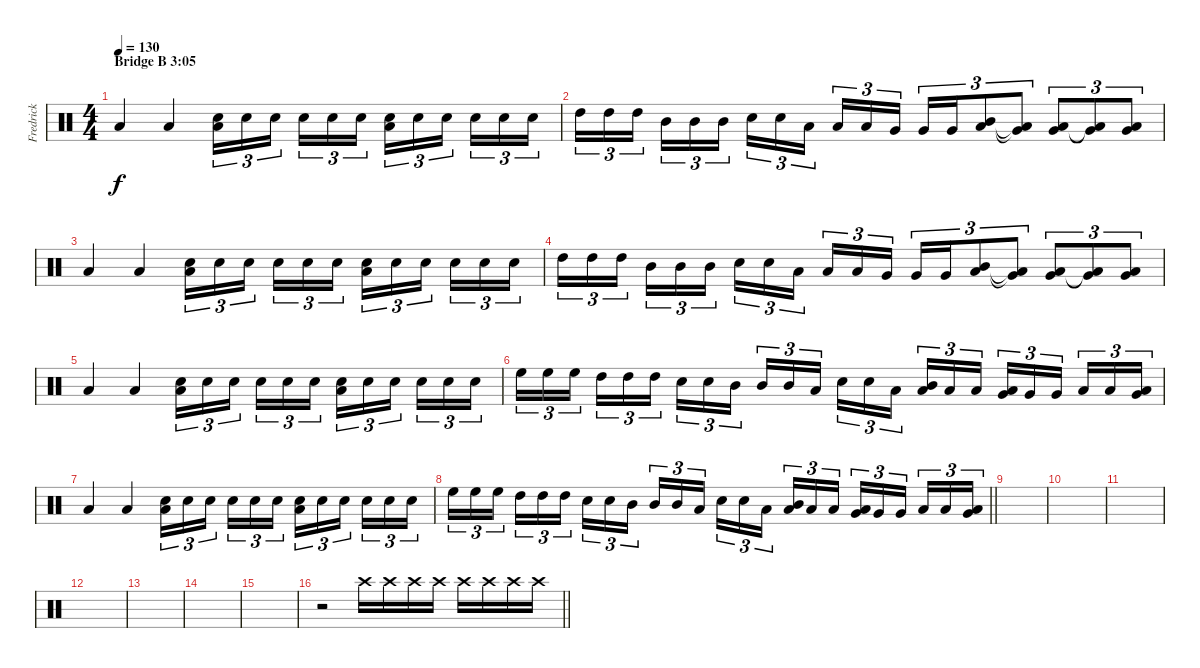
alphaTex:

\track ("Fredrick" "Fredrick") {instrument percussion}
\staff {score}
\articulation defaults
\ts (4 4)
\section ("" "Bridge B 3:05")
\tempo 130
\clef neutral
\ks c "Low Floor Tom (hit)".4{dy f} "Low Floor Tom (hit)".4
("Low Floor Tom (hit)" "Electric Snare (hit)").16{tu (3 2)} "Electric Snare (hit)".16{tu (3 2)} "Electric Snare (hit)".16{tu (3 2) beam splitsecondary} "Electric Snare (hit)".16{tu (3 2)} "Electric Snare (hit)".16{tu (3 2)} "Electric Snare (hit)".16{tu (3 2)} ("Low Floor Tom (hit)" "Electric Snare (hit)").16{tu (3 2)} "Electric Snare (hit)".16{tu (3 2)} "Electric Snare (hit)".16{tu (3 2) beam splitsecondary} "Electric Snare (hit)".16{tu (3 2)} "Electric Snare (hit)".16{tu (3 2)} "Electric Snare (hit)".16{tu (3 2)} |
"High Tom (hit)".16{tu (3 2)} "High Tom (hit)".16{tu (3 2)} "High Tom (hit)".16{tu (3 2) beam splitsecondary} "Mid Tom (hit)".16{tu (3 2)} "Mid Tom (hit)".16{tu (3 2)} "Mid Tom (hit)".16{tu (3 2)} "Electric Snare (hit)".16{tu (3 2)} "Electric Snare (hit)".16{tu (3 2)} "Low Tom (hit)".16{tu (3 2) beam splitsecondary} "Low Tom (hit)".16{tu (3 2)} "Low Tom (hit)".16{tu (3 2)} "Very Low Tom (hit)".16{tu (3 2)} "Very Low Tom (hit)".16{tu (3 2)} "Very Low Tom (hit)".16{tu (3 2)} ("Mid Tom (hit)" "Low Tom (hit)").8{tu (3 2)} ("Low Tom (hit)"{t} "Very Low Tom (hit)"{t}).8{tu (3 2)} ("Low Tom (hit)" "Very Low Tom (hit)").8{tu (3 2)} ("Very Low Tom (hit)"{t} "Low Floor Tom (hit)"{t}).8{tu (3 2)} ("Very Low Tom (hit)" "Low Floor Tom (hit)").8{tu (3 2)} |
"Low Floor Tom (hit)".4 "Low Floor Tom (hit)".4 ("Low Floor Tom (hit)" "Electric Snare (hit)").16{tu (3 2)} "Electric Snare (hit)".16{tu (3 2)} "Electric Snare (hit)".16{tu (3 2) beam splitsecondary} "Electric Snare (hit)".16{tu (3 2)} "Electric Snare (hit)".16{tu (3 2)} "Electric Snare (hit)".16{tu (3 2)} ("Low Floor Tom (hit)" "Electric Snare (hit)").16{tu (3 2)} "Electric Snare (hit)".16{tu (3 2)} "Electric Snare (hit)".16{tu (3 2) beam splitsecondary} "Electric Snare (hit)".16{tu (3 2)} "Electric Snare (hit)".16{tu (3 2)} "Electric Snare (hit)".16{tu (3 2)} |
"High Tom (hit)".16{tu (3 2)} "High Tom (hit)".16{tu (3 2)} "High Tom (hit)".16{tu (3 2) beam splitsecondary} "Mid Tom (hit)".16{tu (3 2)} "Mid Tom (hit)".16{tu (3 2)} "Mid Tom (hit)".16{tu (3 2)} "Electric Snare (hit)".16{tu (3 2)} "Electric Snare (hit)".16{tu (3 2)} "Low Tom (hit)".16{tu (3 2) beam splitsecondary} "Low Tom (hit)".16{tu (3 2)} "Low Tom (hit)".16{tu (3 2)} "Very Low Tom (hit)".16{tu (3 2)} "Very Low Tom (hit)".16{tu (3 2)} "Very Low Tom (hit)".16{tu (3 2)} ("Mid Tom (hit)" "Low Tom (hit)").8{tu (3 2)} ("Low Tom (hit)"{t} "Very Low Tom (hit)"{t}).8{tu (3 2)} ("Low Tom (hit)" "Very Low Tom (hit)").8{tu (3 2)} ("Very Low Tom (hit)"{t} "Low Floor Tom (hit)"{t}).8{tu (3 2)} ("Very Low Tom (hit)" "Low Floor Tom (hit)").8{tu (3 2)} |
"Low Floor Tom (hit)".4 "Low Floor Tom (hit)".4 ("Low Floor Tom (hit)" "Electric Snare (hit)").16{tu (3 2)} "Electric Snare (hit)".16{tu (3 2)} "Electric Snare (hit)".16{tu (3 2) beam splitsecondary} "Electric Snare (hit)".16{tu (3 2)} "Electric Snare (hit)".16{tu (3 2)} "Electric Snare (hit)".16{tu (3 2)} ("Low Floor Tom (hit)" "Electric Snare (hit)").16{tu (3 2)} "Electric Snare (hit)".16{tu (3 2)} "Electric Snare (hit)".16{tu (3 2) beam splitsecondary} "Electric Snare (hit)".16{tu (3 2)} "Electric Snare (hit)".16{tu (3 2)} "Electric Snare (hit)".16{tu (3 2)} |
"High Floor Tom (hit)".16{tu (3 2)} "High Floor Tom (hit)".16{tu (3 2)} "High Floor Tom (hit)".16{tu (3 2) beam splitsecondary} "High Tom (hit)".16{tu (3 2)} "High Tom (hit)".16{tu (3 2)} "High Tom (hit)".16{tu (3 2)} "Electric Snare (hit)".16{tu (3 2)} "Electric Snare (hit)".16{tu (3 2)} "Mid Tom (hit)".16{tu (3 2) beam splitsecondary} "Mid Tom (hit)".16{tu (3 2)} "Mid Tom (hit)".16{tu (3 2)} "Low Tom (hit)".16{tu (3 2)} "Electric Snare (hit)".16{tu (3 2)} "Electric Snare (hit)".16{tu (3 2)} "Low Tom (hit)".16{tu (3 2) beam splitsecondary} ("Mid Tom (hit)" "Low Tom (hit)").16{tu (3 2)} "Low Tom (hit)".16{tu (3 2)} "Low Tom (hit)".16{tu (3 2)} ("Low Tom (hit)" "Very Low Tom (hit)").16{tu (3 2)} "Very Low Tom (hit)".16{tu (3 2)} "Very Low Tom (hit)".16{tu (3 2) beam splitsecondary} "Low Floor Tom (hit)".16{tu (3 2)} "Low Floor Tom (hit)".16{tu (3 2)} ("Very Low Tom (hit)" "Low Floor Tom (hit)").16{tu (3 2)} |
"Low Floor Tom (hit)".4 "Low Floor Tom (hit)".4 ("Low Floor Tom (hit)" "Electric Snare (hit)").16{tu (3 2)} "Electric Snare (hit)".16{tu (3 2)} "Electric Snare (hit)".16{tu (3 2) beam splitsecondary} "Electric Snare (hit)".16{tu (3 2)} "Electric Snare (hit)".16{tu (3 2)} "Electric Snare (hit)".16{tu (3 2)} ("Low Floor Tom (hit)" "Electric Snare (hit)").16{tu (3 2)} "Electric Snare (hit)".16{tu (3 2)} "Electric Snare (hit)".16{tu (3 2) beam splitsecondary} "Electric Snare (hit)".16{tu (3 2)} "Electric Snare (hit)".16{tu (3 2)} "Electric Snare (hit)".16{tu (3 2)} |
\barLineRight lightlight "High Floor Tom (hit)".16{tu (3 2)} "High Floor Tom (hit)".16{tu (3 2)} "High Floor Tom (hit)".16{tu (3 2) beam splitsecondary} "High Tom (hit)".16{tu (3 2)} "High Tom (hit)".16{tu (3 2)} "High Tom (hit)".16{tu (3 2)} "Electric Snare (hit)".16{tu (3 2)} "Electric Snare (hit)".16{tu (3 2)} "Mid Tom (hit)".16{tu (3 2) beam splitsecondary} "Mid Tom (hit)".16{tu (3 2)} "Mid Tom (hit)".16{tu (3 2)} "Low Tom (hit)".16{tu (3 2)} "Electric Snare (hit)".16{tu (3 2)} "Electric Snare (hit)".16{tu (3 2)} "Low Tom (hit)".16{tu (3 2) beam splitsecondary}
("Mid Tom (hit)" "Low Tom (hit)").16{tu (3 2)} "Low Tom (hit)".16{tu (3 2)} "Low Tom (hit)".16{tu (3 2)} ("Low Tom (hit)" "Very Low Tom (hit)").16{tu (3 2)} "Very Low Tom (hit)".16{tu (3 2)} "Very Low Tom (hit)".16{tu (3 2) beam splitsecondary} "Low Floor Tom (hit)".16{tu (3 2)} "Low Floor Tom (hit)".16{tu (3 2)} ("Very Low Tom (hit)" "Low Floor Tom (hit)").16{tu (3 2)} |
|
|
|
|
|
|
|
\barLineRight lightlight
r.2{volume 0} "Crash high (hit)".16{volume 13} "Crash high (hit)".16 "Crash high (hit)".16 "Crash high (hit)".16 "Crash high (hit)".16 "Crash high (hit)".16 "Crash high (hit)".16 "Crash high (hit)".16
